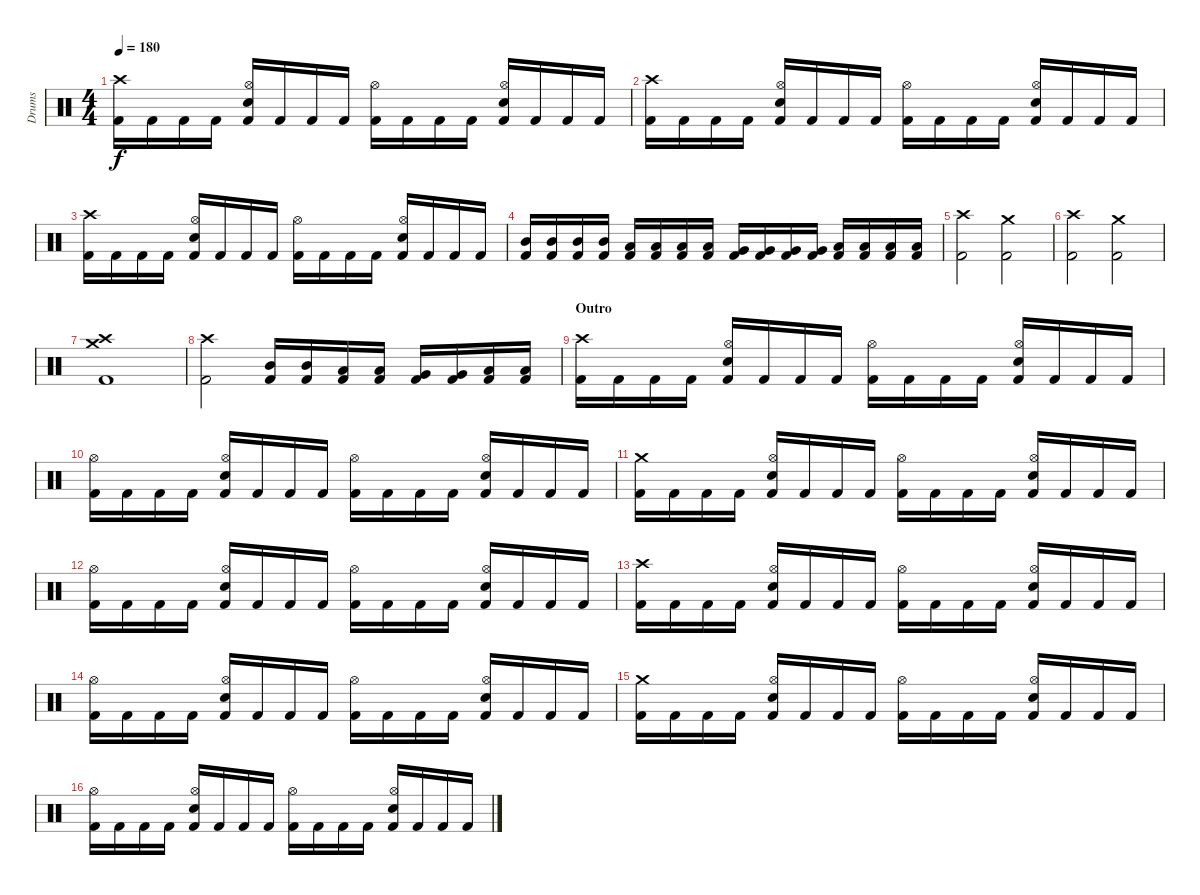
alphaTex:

\track ("Drums" "Drums") {instrument percussion}
\staff {score}
\articulation defaults
\ts (4 4)
\tempo 180
\clef neutral
\ks c
("Crash high (hit)" "Kick (hit) 2").16{dy f} "Kick (hit) 2".16 "Kick (hit) 2".16 "Kick (hit) 2".16 ("Hi-Hat (open)" "Electric Snare (hit)" "Kick (hit) 2").16 "Kick (hit) 2".16 "Kick (hit) 2".16 "Kick (hit) 2".16 ("Hi-Hat (open)" "Kick (hit) 2").16 "Kick (hit) 2".16 "Kick (hit) 2".16 "Kick (hit) 2".16 ("Hi-Hat (open)" "Electric Snare (hit)" "Kick (hit) 2").16 "Kick (hit) 2".16 "Kick (hit) 2".16 "Kick (hit) 2".16 |
("Crash high (hit)" "Kick (hit) 2").16 "Kick (hit) 2".16 "Kick (hit) 2".16 "Kick (hit) 2".16 ("Hi-Hat (open)" "Electric Snare (hit)" "Kick (hit) 2").16 "Kick (hit) 2".16 "Kick (hit) 2".16 "Kick (hit) 2".16 ("Hi-Hat (open)" "Kick (hit) 2").16 "Kick (hit) 2".16 "Kick (hit) 2".16 "Kick (hit) 2".16 ("Hi-Hat (open)" "Electric Snare (hit)" "Kick (hit) 2").16 "Kick (hit) 2".16 "Kick (hit) 2".16 "Kick (hit) 2".16 |
("Crash high (hit)" "Kick (hit) 2").16 "Kick (hit) 2".16 "Kick (hit) 2".16 "Kick (hit) 2".16 ("Hi-Hat (open)" "Electric Snare (hit)" "Kick (hit) 2").16 "Kick (hit) 2".16 "Kick (hit) 2".16 "Kick (hit) 2".16 ("Hi-Hat (open)" "Kick (hit) 2").16 "Kick (hit) 2".16 "Kick (hit) 2".16 "Kick (hit) 2".16 ("Hi-Hat (open)" "Electric Snare (hit)" "Kick (hit) 2").16 "Kick (hit) 2".16 "Kick (hit) 2".16 "Kick (hit) 2".16 |
("Mid Tom (hit)" "Kick (hit) 2").16 ("Mid Tom (hit)" "Kick (hit) 2").16 ("Mid Tom (hit)" "Kick (hit) 2").16 ("Mid Tom (hit)" "Kick (hit) 2").16 ("Low Tom (hit)" "Kick (hit) 2").16 ("Low Tom (hit)" "Kick (hit) 2").16 ("Low Tom (hit)" "Kick (hit) 2").16 ("Low Tom (hit)" "Kick (hit) 2").16 ("Very Low Tom (hit)" "Kick (hit) 2").16 ("Very Low Tom (hit)" "Kick (hit) 2").16 ("Very Low Tom (hit)" "Kick (hit) 2").16 ("Very Low Tom (hit)" "Kick (hit) 2").16 ("Low Floor Tom (hit)" "Kick (hit) 2").16 ("Low Floor Tom (hit)" "Kick (hit) 2").16 ("Low Floor Tom (hit)" "Kick (hit) 2").16 ("Low Floor Tom (hit)" "Kick (hit) 2").16 |
("Crash high (hit)" "Kick (hit) 2").2 ("Crash medium (hit)" "Kick (hit) 2").2 |
("Crash high (hit)" "Kick (hit) 2").2 ("Crash medium (hit)" "Kick (hit) 2").2 |
("Crash high (hit)" "Crash medium (hit)" "Kick (hit) 2").1 |
("Crash high (hit)" "Kick (hit) 2").2 ("Mid Tom (hit)" "Kick (hit) 2").16 ("Mid Tom (hit)" "Kick (hit) 2").16 ("Low Tom (hit)" "Kick (hit) 2").16 ("Low Tom (hit)" "Kick (hit) 2").16 ("Very Low Tom (hit)" "Kick (hit) 2").16 ("Very Low Tom (hit)" "Kick (hit) 2").16 ("Low Floor Tom (hit)" "Kick (hit) 2").16 ("Low Floor Tom (hit)" "Kick (hit) 2").16 |
\section ("" "Outro")
("Crash high (hit)" "Kick (hit) 2").16 "Kick (hit) 2".16 "Kick (hit) 2".16 "Kick (hit) 2".16 ("Hi-Hat (open)" "Electric Snare (hit)" "Kick (hit) 2").16 "Kick (hit) 2".16 "Kick (hit) 2".16 "Kick (hit) 2".16 ("Hi-Hat (open)" "Kick (hit) 2").16 "Kick (hit) 2".16 "Kick (hit) 2".16 "Kick (hit) 2".16 ("Hi-Hat (open)" "Electric Snare (hit)" "Kick (hit) 2").16 "Kick (hit) 2".16 "Kick (hit) 2".16 "Kick (hit) 2".16 |
("Hi-Hat (open)" "Kick (hit) 2").16 "Kick (hit) 2".16 "Kick (hit) 2".16 "Kick (hit) 2".16 ("Hi-Hat (open)" "Electric Snare (hit)" "Kick (hit) 2").16 "Kick (hit) 2".16 "Kick (hit) 2".16 "Kick (hit) 2".16 ("Hi-Hat (open)" "Kick (hit) 2").16 "Kick (hit) 2".16 "Kick (hit) 2".16 "Kick (hit) 2".16 ("Hi-Hat (open)" "Electric Snare (hit)" "Kick (hit) 2").16 "Kick (hit) 2".16 "Kick (hit) 2".16 "Kick (hit) 2".16 |
("Crash medium (hit)" "Kick (hit) 2").16 "Kick (hit) 2".16 "Kick (hit) 2".16 "Kick (hit) 2".16 ("Hi-Hat (open)" "Electric Snare (hit)" "Kick (hit) 2").16 "Kick (hit) 2".16 "Kick (hit) 2".16 "Kick (hit) 2".16 ("Hi-Hat (open)" "Kick (hit) 2").16 "Kick (hit) 2".16 "Kick (hit) 2".16 "Kick (hit) 2".16 ("Hi-Hat (open)" "Electric Snare (hit)" "Kick (hit) 2").16 "Kick (hit) 2".16 "Kick (hit) 2".16 "Kick (hit) 2".16 |
("Hi-Hat (open)" "Kick (hit) 2").16 "Kick (hit) 2".16 "Kick (hit) 2".16 "Kick (hit) 2".16 ("Hi-Hat (open)" "Electric Snare (hit)" "Kick (hit) 2").16 "Kick (hit) 2".16 "Kick (hit) 2".16 "Kick (hit) 2".16 ("Hi-Hat (open)" "Kick (hit) 2").16 "Kick (hit) 2".16 "Kick (hit) 2".16 "Kick (hit) 2".16 ("Hi-Hat (open)" "Electric Snare (hit)" "Kick (hit) 2").16 "Kick (hit) 2".16 "Kick (hit) 2".16 "Kick (hit) 2".16 |
("Crash high (hit)" "Kick (hit) 2").16 "Kick (hit) 2".16 "Kick (hit) 2".16 "Kick (hit) 2".16 ("Hi-Hat (open)" "Electric Snare (hit)" "Kick (hit) 2").16 "Kick (hit) 2".16 "Kick (hit) 2".16 "Kick (hit) 2".16 ("Hi-Hat (open)" "Kick (hit) 2").16 "Kick (hit) 2".16 "Kick (hit) 2".16 "Kick (hit) 2".16 ("Hi-Hat (open)" "Electric Snare (hit)" "Kick (hit) 2").16 "Kick (hit) 2".16 "Kick (hit) 2".16 "Kick (hit) 2".16 |
("Hi-Hat (open)" "Kick (hit) 2").16 "Kick (hit) 2".16 "Kick (hit) 2".16 "Kick (hit) 2".16 ("Hi-Hat (open)" "Electric Snare (hit)" "Kick (hit) 2").16 "Kick (hit) 2".16 "Kick (hit) 2".16 "Kick (hit) 2".16 ("Hi-Hat (open)" "Kick (hit) 2").16 "Kick (hit) 2".16 "Kick (hit) 2".16 "Kick (hit) 2".16 ("Hi-Hat (open)" "Electric Snare (hit)" "Kick (hit) 2").16 "Kick (hit) 2".16 "Kick (hit) 2".16 "Kick (hit) 2".16 |
("Crash medium (hit)" "Kick (hit) 2").16 "Kick (hit) 2".16 "Kick (hit) 2".16 "Kick (hit) 2".16 ("Hi-Hat (open)" "Electric Snare (hit)" "Kick (hit) 2").16 "Kick (hit) 2".16 "Kick (hit) 2".16 "Kick (hit) 2".16 ("Hi-Hat (open)" "Kick (hit) 2").16 "Kick (hit) 2".16 "Kick (hit) 2".16 "Kick (hit) 2".16 ("Hi-Hat (open)" "Electric Snare (hit)" "Kick (hit) 2").16 "Kick (hit) 2".16 "Kick (hit) 2".16 "Kick (hit) 2".16 |
("Hi-Hat (open)" "Kick (hit) 2").16 "Kick (hit) 2".16 "Kick (hit) 2".16 "Kick (hit) 2".16 ("Hi-Hat (open)" "Electric Snare (hit)" "Kick (hit) 2").16 "Kick (hit) 2".16 "Kick (hit) 2".16 "Kick (hit) 2".16 ("Hi-Hat (open)" "Kick (hit) 2").16 "Kick (hit) 2".16 "Kick (hit) 2".16 "Kick (hit) 2".16 ("Hi-Hat (open)" "Electric Snare (hit)" "Kick (hit) 2").16 "Kick (hit) 2".16 "Kick (hit) 2".16 "Kick (hit) 2".16
